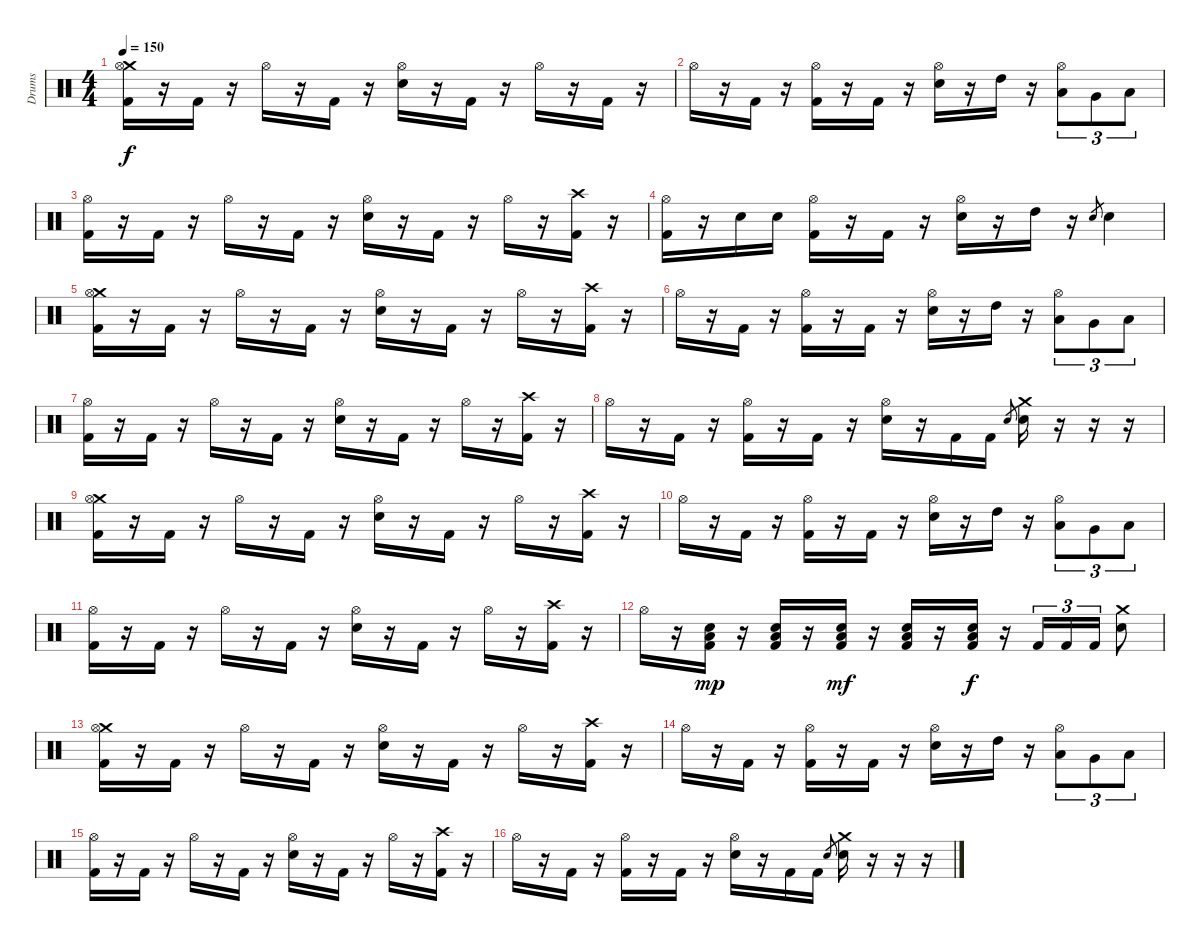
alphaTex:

\track ("Drums" "Drums") {instrument percussion}
\staff {score}
\articulation defaults
\ts (4 4)
\tempo 150
\clef neutral
\ks c
("Crash medium (hit)" "Hi-Hat (open)" "Kick (hit) 2").16{dy f} r.16 "Kick (hit) 2".16 r.16 "Hi-Hat (open)".16 r.16 "Kick (hit) 2".16 r.16 ("Hi-Hat (open)" "Electric Snare (hit)").16 r.16 "Kick (hit) 2".16 r.16 "Hi-Hat (open)".16 r.16 "Kick (hit) 2".16 r.16 |
"Hi-Hat (open)".16 r.16 "Kick (hit) 2".16 r.16 ("Hi-Hat (open)" "Kick (hit) 2").16 r.16 "Kick (hit) 2".16 r.16 ("Hi-Hat (open)" "Electric Snare (hit)").16 r.16 "High Tom (hit)".16 r.16 ("Hi-Hat (open)" "Low Tom (hit)").8{tu (3 2)} "Very Low Tom (hit)".8{tu (3 2)} "Low Floor Tom (hit)".8{tu (3 2)} |
("Hi-Hat (open)" "Kick (hit) 2").16 r.16 "Kick (hit) 2".16 r.16 "Hi-Hat (open)".16 r.16 "Kick (hit) 2".16 r.16 ("Hi-Hat (open)" "Electric Snare (hit)").16 r.16 "Kick (hit) 2".16 r.16 "Hi-Hat (open)".16 r.16 ("Crash high (hit)" "Kick (hit) 2").16 r.16 |
("Hi-Hat (open)" "Kick (hit) 2").16 r.16 "Electric Snare (hit)".16 "Electric Snare (hit)".16 ("Hi-Hat (open)" "Kick (hit) 2").16 r.16 "Kick (hit) 2".16 r.16 ("Hi-Hat (open)" "Electric Snare (hit)").16 r.16 "High Tom (hit)".16 r.16 "Electric Snare (hit)".8{gr} "Electric Snare (hit)".4 |
("Crash medium (hit)" "Hi-Hat (open)" "Kick (hit) 2").16 r.16 "Kick (hit) 2".16 r.16 "Hi-Hat (open)".16 r.16 "Kick (hit) 2".16 r.16 ("Hi-Hat (open)" "Electric Snare (hit)").16 r.16 "Kick (hit) 2".16 r.16 "Hi-Hat (open)".16 r.16 ("Crash high (hit)" "Kick (hit) 2").16 r.16 |
"Hi-Hat (open)".16 r.16 "Kick (hit) 2".16 r.16 ("Hi-Hat (open)" "Kick (hit) 2").16 r.16 "Kick (hit) 2".16 r.16 ("Hi-Hat (open)" "Electric Snare (hit)").16 r.16 "High Tom (hit)".16 r.16 ("Hi-Hat (open)" "Low Tom (hit)").8{tu (3 2)} "Very Low Tom (hit)".8{tu (3 2)} "Low Floor Tom (hit)".8{tu (3 2)} |
("Hi-Hat (open)" "Kick (hit) 2").16 r.16 "Kick (hit) 2".16 r.16 "Hi-Hat (open)".16 r.16 "Kick (hit) 2".16 r.16 ("Hi-Hat (open)" "Electric Snare (hit)").16 r.16 "Kick (hit) 2".16 r.16 "Hi-Hat (open)".16 r.16 ("Crash high (hit)" "Kick (hit) 2").16 r.16 |
"Hi-Hat (open)".16 r.16 "Kick (hit) 2".16 r.16 ("Hi-Hat (open)" "Kick (hit) 2").16 r.16 "Kick (hit) 2".16 r.16 ("Hi-Hat (open)" "Electric Snare (hit)").16 r.16 "Kick (hit) 2".16 "Kick (hit) 2".16 "Electric Snare (hit)".8{gr} ("Crash medium (hit)" "Electric Snare (hit)").16 r.16 r.16 r.16 |
("Crash medium (hit)" "Hi-Hat (open)" "Kick (hit) 2").16 r.16 "Kick (hit) 2".16 r.16 "Hi-Hat (open)".16 r.16 "Kick (hit) 2".16 r.16 ("Hi-Hat (open)" "Electric Snare (hit)").16 r.16 "Kick (hit) 2".16 r.16 "Hi-Hat (open)".16 r.16 ("Crash high (hit)" "Kick (hit) 2").16 r.16 |
"Hi-Hat (open)".16 r.16 "Kick (hit) 2".16 r.16 ("Hi-Hat (open)" "Kick (hit) 2").16 r.16 "Kick (hit) 2".16 r.16 ("Hi-Hat (open)" "Electric Snare (hit)").16 r.16 "High Tom (hit)".16 r.16 ("Hi-Hat (open)" "Low Tom (hit)").8{tu (3 2)} "Very Low Tom (hit)".8{tu (3 2)} "Low Floor Tom (hit)".8{tu (3 2)} |
("Hi-Hat (open)" "Kick (hit) 2").16 r.16 "Kick (hit) 2".16 r.16 "Hi-Hat (open)".16 r.16 "Kick (hit) 2".16 r.16 ("Hi-Hat (open)" "Electric Snare (hit)").16 r.16 "Kick (hit) 2".16 r.16 "Hi-Hat (open)".16 r.16 ("Crash high (hit)" "Kick (hit) 2").16 r.16 |
"Hi-Hat (open)".16 r.16 ("Low Tom (hit)" "Kick (hit) 2" "Electric Snare (hit)").16{dy mp} r.16 ("Low Tom (hit)" "Kick (hit) 2" "Electric Snare (hit)").16 r.16 ("Low Tom (hit)" "Kick (hit) 2" "Electric Snare (hit)").16{dy mf} r.16 ("Low Tom (hit)" "Electric Snare (hit)" "Kick (hit) 2").16 r.16 ("Low Tom (hit)" "Kick (hit) 2" "Electric Snare (hit)").16{dy f} r.16 "Kick (hit) 2".16{tu (3 2)} "Kick (hit) 2".16{tu (3 2)} "Kick (hit) 2".16{tu (3 2)} ("Crash medium (hit)" "Electric Snare (hit)").8 |
("Crash medium (hit)" "Hi-Hat (open)" "Kick (hit) 2").16 r.16 "Kick (hit) 2".16 r.16 "Hi-Hat (open)".16 r.16 "Kick (hit) 2".16 r.16 ("Hi-Hat (open)" "Electric Snare (hit)").16 r.16 "Kick (hit) 2".16 r.16 "Hi-Hat (open)".16 r.16 ("Crash high (hit)" "Kick (hit) 2").16 r.16 |
"Hi-Hat (open)".16 r.16 "Kick (hit) 2".16 r.16 ("Hi-Hat (open)" "Kick (hit) 2").16 r.16 "Kick (hit) 2".16 r.16 ("Hi-Hat (open)" "Electric Snare (hit)").16 r.16 "High Tom (hit)".16 r.16 ("Hi-Hat (open)" "Low Tom (hit)").8{tu (3 2)} "Very Low Tom (hit)".8{tu (3 2)} "Low Floor Tom (hit)".8{tu (3 2)} |
("Hi-Hat (open)" "Kick (hit) 2").16 r.16 "Kick (hit) 2".16 r.16 "Hi-Hat (open)".16 r.16 "Kick (hit) 2".16 r.16 ("Hi-Hat (open)" "Electric Snare (hit)").16 r.16 "Kick (hit) 2".16 r.16 "Hi-Hat (open)".16 r.16 ("Crash high (hit)" "Kick (hit) 2").16 r.16 |
"Hi-Hat (open)".16 r.16 "Kick (hit) 2".16 r.16 ("Hi-Hat (open)" "Kick (hit) 2").16 r.16 "Kick (hit) 2".16 r.16 ("Hi-Hat (open)" "Electric Snare (hit)").16 r.16 "Kick (hit) 2".16 "Kick (hit) 2".16 "Electric Snare (hit)".8{gr} ("Crash medium (hit)" "Electric Snare (hit)").16 r.16 r.16 r.16
